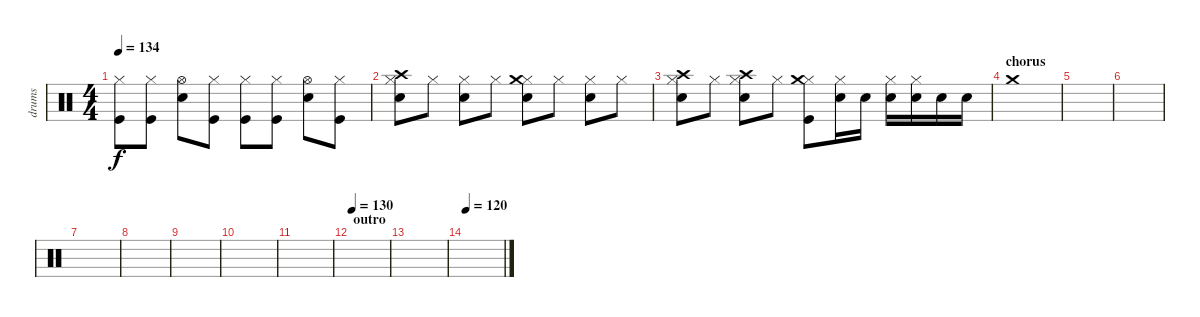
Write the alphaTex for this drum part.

\track ("drums" "drums") {instrument percussion}
\staff {score}
\articulation defaults
\ts (4 4)
\tempo 134
\clef neutral
\ks c
("Kick (hit)" "Hi-Hat (closed)").8{dy f} ("Kick (hit)" "Hi-Hat (closed)").8 ("Electric Snare (hit)" "Hi-Hat (open)").8 ("Kick (hit)" "Hi-Hat (closed)").8 ("Kick (hit)" "Hi-Hat (closed)").8 ("Kick (hit)" "Hi-Hat (closed)").8 ("Electric Snare (hit)" "Hi-Hat (open)").8 ("Kick (hit)" "Hi-Hat (closed)").8 |
("Electric Snare (hit)" "Hi-Hat (closed)" "Crash high (hit)").8 "Hi-Hat (closed)".8 ("Electric Snare (hit)" "Hi-Hat (closed)").8 "Hi-Hat (closed)".8 ("Electric Snare (hit)" "Hi-Hat (closed)" "Crash medium (hit)").8 "Hi-Hat (closed)".8 ("Electric Snare (hit)" "Hi-Hat (closed)").8 "Hi-Hat (closed)".8 |
("Electric Snare (hit)" "Hi-Hat (closed)" "Crash high (hit)").8 "Hi-Hat (closed)".8 ("Electric Snare (hit)" "Hi-Hat (closed)" "Crash high (hit)").8 "Hi-Hat (closed)".8 ("Kick (hit)" "Hi-Hat (closed)" "Crash medium (hit)").8 ("Electric Snare (hit)" "Hi-Hat (closed)").16 "Electric Snare (hit)".16 ("Electric Snare (hit)" "Hi-Hat (closed)").16 ("Electric Snare (hit)" "Hi-Hat (closed)").16 "Electric Snare (hit)".16 "Electric Snare (hit)".16 |
\section ("" "chorus")
"Crash medium (hit)".1 |
|
|
|
|
|
|
|
\section ("" "outro")
\tempo 130
|
|
\tempo 120
